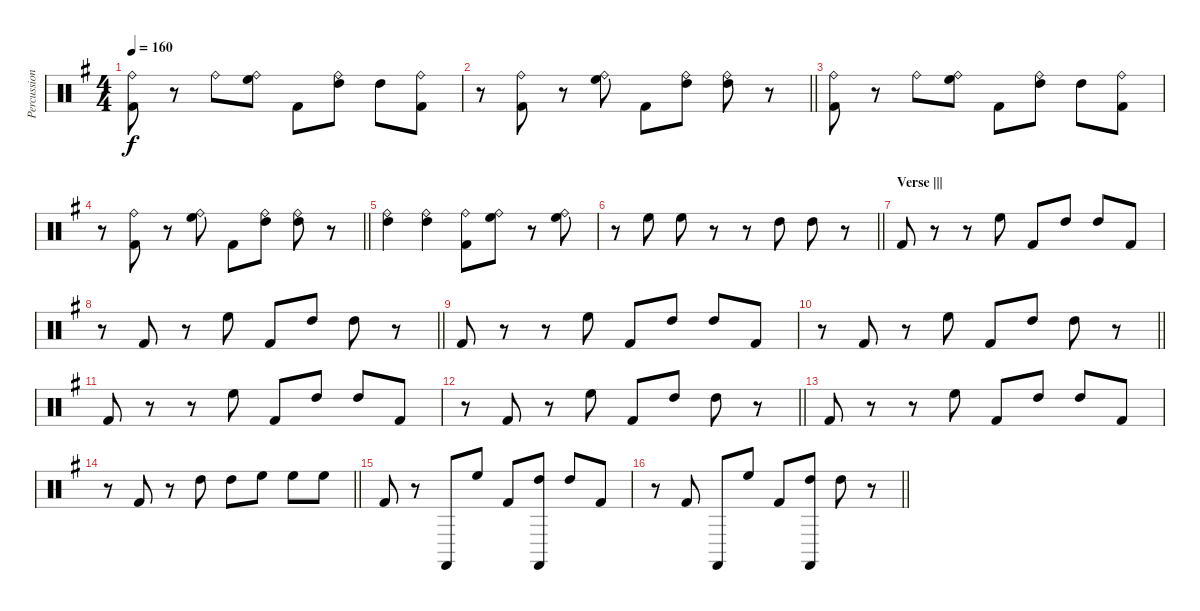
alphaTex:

\track ("Percussion" "Percussion") {instrument percussion}
\staff {score}
\articulation defaults
\ts (4 4)
\tempo 160
\clef neutral
\ks g
("Ride (bell)" "Kick (hit) 2").8{dy f} r.8 "Ride (bell)".8 ("High Floor Tom (hit)" "Ride (bell)").8 "Kick (hit) 2".8 ("High Tom (hit)" "Ride (bell)").8 "High Tom (hit)".8 ("Ride (bell)" "Kick (hit) 2").8 |
\barLineRight lightlight
r.8 ("Ride (bell)" "Kick (hit) 2").8 r.8 ("High Floor Tom (hit)" "Ride (bell)").8 "Kick (hit) 2".8 ("High Tom (hit)" "Ride (bell)").8 ("High Tom (hit)" "Ride (bell)").8 r.8 |
("Ride (bell)" "Kick (hit) 2").8 r.8 "Ride (bell)".8 ("High Floor Tom (hit)" "Ride (bell)").8 "Kick (hit) 2".8 ("High Tom (hit)" "Ride (bell)").8 "High Tom (hit)".8 ("Ride (bell)" "Kick (hit) 2").8 |
\barLineRight lightlight
r.8 ("Ride (bell)" "Kick (hit) 2").8 r.8 ("High Floor Tom (hit)" "Ride (bell)").8 "Kick (hit) 2".8 ("High Tom (hit)" "Ride (bell)").8 ("High Tom (hit)" "Ride (bell)").8 r.8 |
("Ride (bell)" "High Tom (hit)").4 ("Ride (bell)" "High Tom (hit)").4 ("Ride (bell)" "Kick (hit) 2").8 ("Ride (bell)" "High Floor Tom (hit)").8 r.8 ("Ride (bell)" "High Floor Tom (hit)").8 |
\barLineRight lightlight
r.8 "High Floor Tom (hit)".8 "High Floor Tom (hit)".8 r.8 r.8 "High Tom (hit)".8 "High Tom (hit)".8 r.8 |
\section ("" "Verse |||")
"Kick (hit) 2".8 r.8 r.8 "High Floor Tom (hit)".8 "Kick (hit) 2".8 "High Tom (hit)".8 "High Tom (hit)".8 "Kick (hit) 2".8 |
\barLineRight lightlight
r.8 "Kick (hit) 2".8 r.8 "High Floor Tom (hit)".8 "Kick (hit) 2".8 "High Tom (hit)".8 "High Tom (hit)".8 r.8 |
"Kick (hit) 2".8 r.8 r.8 "High Floor Tom (hit)".8 "Kick (hit) 2".8 "High Tom (hit)".8 "High Tom (hit)".8 "Kick (hit) 2".8 |
\barLineRight lightlight
r.8 "Kick (hit) 2".8 r.8 "High Floor Tom (hit)".8 "Kick (hit) 2".8 "High Tom (hit)".8 "High Tom (hit)".8 r.8 |
"Kick (hit) 2".8 r.8 r.8 "High Floor Tom (hit)".8 "Kick (hit) 2".8 "High Tom (hit)".8 "High Tom (hit)".8 "Kick (hit) 2".8 |
\barLineRight lightlight
r.8 "Kick (hit) 2".8 r.8 "High Floor Tom (hit)".8 "Kick (hit) 2".8 "High Tom (hit)".8 "High Tom (hit)".8 r.8 |
"Kick (hit) 2".8 r.8 r.8 "High Floor Tom (hit)".8 "Kick (hit) 2".8 "High Tom (hit)".8 "High Tom (hit)".8 "Kick (hit) 2".8 |
\barLineRight lightlight
r.8 "Kick (hit) 2".8 r.8 "High Tom (hit)".8 "High Tom (hit)".8 "High Floor Tom (hit)".8 "High Floor Tom (hit)".8 "High Floor Tom (hit)".8 |
"Kick (hit) 2".8 r.8 "Castanets (hit)".8 "High Floor Tom (hit)".8 "Kick (hit) 2".8 ("High Tom (hit)" "Castanets (hit)").8 "High Tom (hit)".8 "Kick (hit) 2".8 |
\barLineRight lightlight
r.8 "Kick (hit) 2".8 "Castanets (hit)".8 "High Floor Tom (hit)".8 "Kick (hit) 2".8 ("High Tom (hit)" "Castanets (hit)").8 "High Tom (hit)".8 r.8
